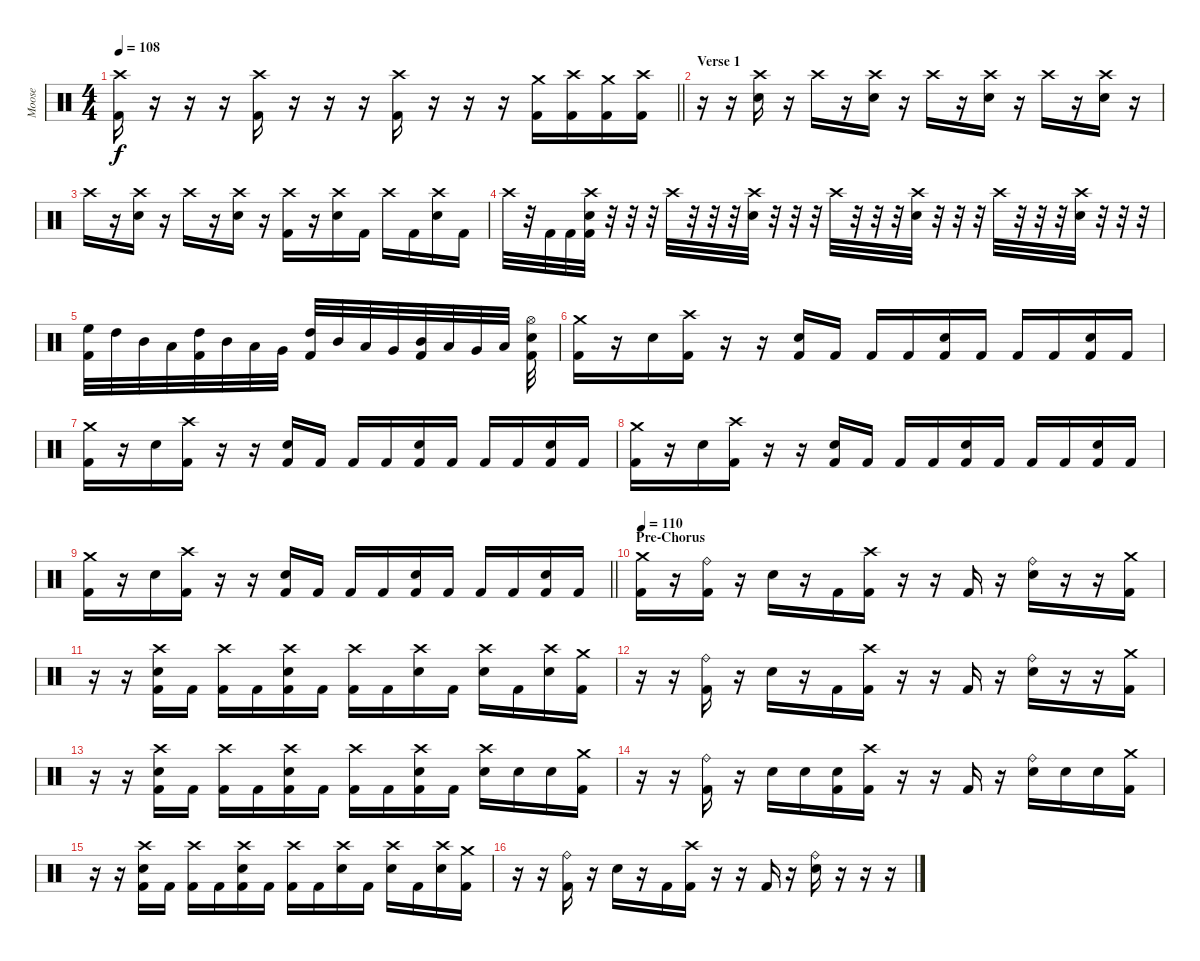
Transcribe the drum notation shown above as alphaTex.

\track ("Moose" "Moose") {instrument percussion}
\staff {score}
\articulation defaults
\ts (4 4)
\tempo 108
\clef neutral
\barLineRight lightlight
\ks c
("Crash high (hit)" "Kick (hit) 2").16{dy f} r.16 r.16 r.16 ("Crash high (hit)" "Kick (hit) 2").16 r.16 r.16 r.16 ("Crash high (hit)" "Kick (hit) 2").16 r.16 r.16 r.16 ("Crash medium (hit)" "Kick (hit) 2").16 ("Crash high (hit)" "Kick (hit) 2").16 ("Crash medium (hit)" "Kick (hit) 2").16 ("Crash high (hit)" "Kick (hit) 2").16 |
\section ("" "Verse 1")
r.16 r.16 ("Crash high (hit)" "Electric Snare (hit)").16 r.16 "Crash high (hit)".16 r.16 ("Crash high (hit)" "Electric Snare (hit)").16 r.16 "Crash high (hit)".16 r.16 ("Crash high (hit)" "Electric Snare (hit)").16 r.16 "Crash high (hit)".16 r.16 ("Crash high (hit)" "Electric Snare (hit)").16 r.16 |
"Crash high (hit)".16 r.16 ("Crash high (hit)" "Electric Snare (hit)").16 r.16 "Crash high (hit)".16 r.16 ("Crash high (hit)" "Electric Snare (hit)").16 r.16 ("Crash high (hit)" "Kick (hit) 2").16 r.16 ("Crash high (hit)" "Electric Snare (hit)").16 "Kick (hit) 2".16 "Crash high (hit)".16 "Kick (hit) 2".16 ("Crash high (hit)" "Electric Snare (hit)").16 "Kick (hit) 2".16 |
"Crash high (hit)".32 r.32 "Kick (hit) 2".32 "Kick (hit) 2".32 ("Crash high (hit)" "Electric Snare (hit)" "Kick (hit) 2").32 r.32 r.32 r.32 "Crash high (hit)".32 r.32 r.32 r.32 ("Crash high (hit)" "Electric Snare (hit)").32 r.32 r.32 r.32 "Crash high (hit)".32 r.32 r.32 r.32 ("Crash high (hit)" "Electric Snare (hit)").32 r.32 r.32 r.32 "Crash high (hit)".32 r.32 r.32 r.32 ("Crash high (hit)" "Electric Snare (hit)").32 r.32 r.32 r.32 |
("High Floor Tom (hit)" "Kick (hit) 2").32 "High Tom (hit)".32 "Mid Tom (hit)".32 "Low Tom (hit)".32 ("High Tom (hit)" "Kick (hit) 2").32 "Mid Tom (hit)".32 "Low Tom (hit)".32 "Very Low Tom (hit)".32 ("High Tom (hit)" "Kick (hit) 2").32 "Mid Tom (hit)".32 "Low Tom (hit)".32 "Very Low Tom (hit)".32 ("Mid Tom (hit)" "Kick (hit) 2").32 "Low Tom (hit)".32 "Very Low Tom (hit)".32 "Low Floor Tom (hit)".32 ("Hi-Hat (open)" "Electric Snare (hit)" "Kick (hit) 2").32 |
("Crash medium (hit)" "Kick (hit) 2").16 r.16 "Electric Snare (hit)".16 ("Crash high (hit)" "Kick (hit) 2").16 r.16 r.16 ("Electric Snare (hit)" "Kick (hit) 2").16 "Kick (hit) 2".16 "Kick (hit) 2".16 "Kick (hit) 2".16 ("Electric Snare (hit)" "Kick (hit) 2").16 "Kick (hit) 2".16 "Kick (hit) 2".16 "Kick (hit) 2".16 ("Electric Snare (hit)" "Kick (hit) 2").16 "Kick (hit) 2".16 |
("Crash medium (hit)" "Kick (hit) 2").16 r.16 "Electric Snare (hit)".16 ("Crash high (hit)" "Kick (hit) 2").16 r.16 r.16 ("Electric Snare (hit)" "Kick (hit) 2").16 "Kick (hit) 2".16 "Kick (hit) 2".16 "Kick (hit) 2".16 ("Electric Snare (hit)" "Kick (hit) 2").16 "Kick (hit) 2".16 "Kick (hit) 2".16 "Kick (hit) 2".16 ("Electric Snare (hit)" "Kick (hit) 2").16 "Kick (hit) 2".16 |
("Crash medium (hit)" "Kick (hit) 2").16 r.16 "Electric Snare (hit)".16 ("Crash high (hit)" "Kick (hit) 2").16 r.16 r.16 ("Electric Snare (hit)" "Kick (hit) 2").16 "Kick (hit) 2".16 "Kick (hit) 2".16 "Kick (hit) 2".16 ("Electric Snare (hit)" "Kick (hit) 2").16 "Kick (hit) 2".16 "Kick (hit) 2".16 "Kick (hit) 2".16 ("Electric Snare (hit)" "Kick (hit) 2").16 "Kick (hit) 2".16 |
\barLineRight lightlight
("Crash medium (hit)" "Kick (hit) 2").16 r.16 "Electric Snare (hit)".16 ("Crash high (hit)" "Kick (hit) 2").16 r.16 r.16 ("Electric Snare (hit)" "Kick (hit) 2").16 "Kick (hit) 2".16 "Kick (hit) 2".16 "Kick (hit) 2".16 ("Electric Snare (hit)" "Kick (hit) 2").16 "Kick (hit) 2".16 "Kick (hit) 2".16 "Kick (hit) 2".16 ("Electric Snare (hit)" "Kick (hit) 2").16 "Kick (hit) 2".16 |
\section ("" "Pre-Chorus")
\tempo 110
("Crash medium (hit)" "Kick (hit) 2").16 r.16 ("Ride (bell)" "Kick (hit) 2").16 r.16 "Electric Snare (hit)".16 r.16 "Kick (hit) 2".16 ("Crash high (hit)" "Kick (hit) 2").16 r.16 r.16 "Kick (hit) 2".16 r.16 ("Ride (bell)" "Electric Snare (hit)").16 r.16 r.16 ("Crash medium (hit)" "Kick (hit) 2").16 |
r.16 r.16 ("Crash high (hit)" "Electric Snare (hit)" "Kick (hit) 2").16 "Kick (hit) 2".16 ("Crash high (hit)" "Kick (hit) 2").16 "Kick (hit) 2".16 ("Crash high (hit)" "Electric Snare (hit)" "Kick (hit) 2").16 "Kick (hit) 2".16 ("Crash high (hit)" "Kick (hit) 2").16 "Kick (hit) 2".16 ("Crash high (hit)" "Electric Snare (hit)").16 "Kick (hit) 2".16 ("Crash high (hit)" "Electric Snare (hit)").16 "Kick (hit) 2".16 ("Crash high (hit)" "Electric Snare (hit)").16 ("Crash medium (hit)" "Kick (hit) 2").16 |
r.16 r.16 ("Ride (bell)" "Kick (hit) 2").16 r.16 "Electric Snare (hit)".16 r.16 "Kick (hit) 2".16 ("Crash high (hit)" "Kick (hit) 2").16 r.16 r.16 "Kick (hit) 2".16 r.16 ("Ride (bell)" "Electric Snare (hit)").16 r.16 r.16 ("Crash medium (hit)" "Kick (hit) 2").16 |
r.16 r.16 ("Crash high (hit)" "Electric Snare (hit)" "Kick (hit) 2").16 "Kick (hit) 2".16 ("Crash high (hit)" "Kick (hit) 2").16 "Kick (hit) 2".16 ("Crash high (hit)" "Electric Snare (hit)" "Kick (hit) 2").16 "Kick (hit) 2".16 ("Crash high (hit)" "Kick (hit) 2").16 "Kick (hit) 2".16 ("Crash high (hit)" "Electric Snare (hit)" "Kick (hit) 2").16 "Kick (hit) 2".16 ("Crash high (hit)" "Electric Snare (hit)").16 "Electric Snare (hit)".16 "Electric Snare (hit)".16 ("Crash medium (hit)" "Kick (hit) 2").16 |
r.16 r.16 ("Ride (bell)" "Kick (hit) 2").16 r.16 "Electric Snare (hit)".16 "Electric Snare (hit)".16 ("Electric Snare (hit)" "Kick (hit) 2").16 ("Crash high (hit)" "Kick (hit) 2").16 r.16 r.16 "Kick (hit) 2".16 r.16 ("Ride (bell)" "Electric Snare (hit)").16 "Electric Snare (hit)".16 "Electric Snare (hit)".16 ("Crash medium (hit)" "Kick (hit) 2").16 |
r.16 r.16 ("Crash high (hit)" "Electric Snare (hit)" "Kick (hit) 2").16 "Kick (hit) 2".16 ("Crash high (hit)" "Kick (hit) 2").16 "Kick (hit) 2".16 ("Crash high (hit)" "Electric Snare (hit)" "Kick (hit) 2").16 "Kick (hit) 2".16 ("Crash high (hit)" "Kick (hit) 2").16 "Kick (hit) 2".16 ("Crash high (hit)" "Electric Snare (hit)").16 "Kick (hit) 2".16 ("Crash high (hit)" "Electric Snare (hit)").16 "Kick (hit) 2".16 ("Crash high (hit)" "Electric Snare (hit)").16 ("Crash medium (hit)" "Kick (hit) 2").16 |
r.16 r.16 ("Ride (bell)" "Kick (hit) 2").16 r.16 "Electric Snare (hit)".16 r.16 "Kick (hit) 2".16 ("Crash high (hit)" "Kick (hit) 2").16 r.16 r.16 "Kick (hit) 2".16 r.16 ("Ride (bell)" "Electric Snare (hit)").16 r.16 r.16 r.16
